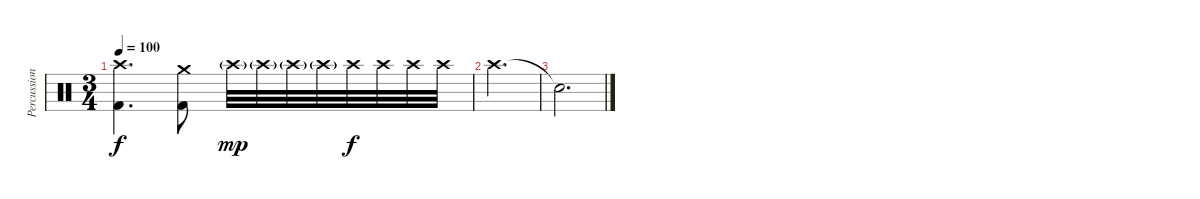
\track ("Percussion" "Percussion") {instrument percussion}
\staff {score}
\articulation defaults
\ts (3 4)
\tempo 100
\clef neutral
\ks c
("Crash high (hit)" "Kick (hit) 2").4{d dy f} ("Crash medium (hit)" "Kick (hit) 2").8 "Crash high (hit)"{g}.32{dy mp} "Crash high (hit)"{g}.32 "Crash high (hit)"{g}.32 "Crash high (hit)"{g}.32 "Crash high (hit)".32{dy f} "Crash high (hit)".32 "Crash high (hit)".32 "Crash high (hit)".32 |
"Crash high (hit)".2{d} |
"Snare (hit)"{t}.2{d}
